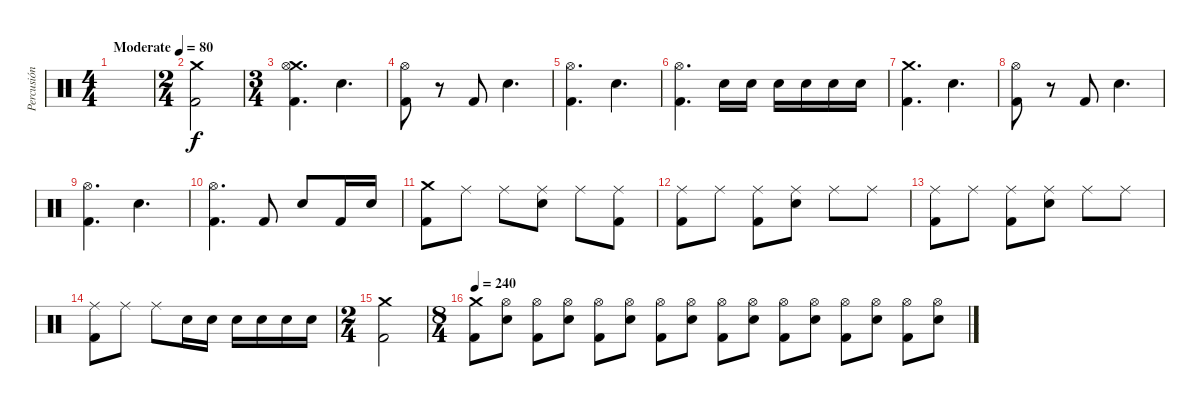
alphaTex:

\track ("Percusión" "Percusión") {instrument percussion}
\staff {score}
\articulation defaults
\ts (4 4)
\tempo (80 "Moderate")
\clef neutral
\ks c
|
\ts (2 4)
("Crash medium (hit)" "Kick (hit) 2").2 |
\ts (3 4)
("Crash medium (hit)" "Hi-Hat (open)" "Kick (hit) 2").4{d} "Electric Snare (hit)".4{d} |
("Hi-Hat (open)" "Kick (hit) 2").8 r.8 "Kick (hit) 2".8 "Electric Snare (hit)".4{d} |
("Hi-Hat (open)" "Kick (hit) 2").4{d} "Electric Snare (hit)".4{d} |
("Hi-Hat (open)" "Kick (hit) 2").4{d} "Electric Snare (hit)".16 "Electric Snare (hit)".16 "Electric Snare (hit)".16 "Electric Snare (hit)".16 "Electric Snare (hit)".16 "Electric Snare (hit)".16 |
("Crash medium (hit)" "Kick (hit) 2").4{d} "Electric Snare (hit)".4{d} |
("Hi-Hat (open)" "Kick (hit) 2").8 r.8 "Kick (hit) 2".8 "Electric Snare (hit)".4{d} |
("Hi-Hat (open)" "Kick (hit) 2").4{d} "Electric Snare (hit)".4{d} |
("Hi-Hat (open)" "Kick (hit) 2").4{d} "Kick (hit) 2".8 "Electric Snare (hit)".8 "Kick (hit) 2".16 "Electric Snare (hit)".16 |
("Crash medium (hit)" "Kick (hit) 2").8 "Ride (middle)".8 "Ride (middle)".8 ("Ride (middle)" "Electric Snare (hit)").8 "Ride (middle)".8 ("Ride (middle)" "Kick (hit) 2").8 |
("Ride (middle)" "Kick (hit) 2").8 "Ride (middle)".8 ("Ride (middle)" "Kick (hit) 2").8 ("Ride (middle)" "Electric Snare (hit)").8 "Ride (middle)".8 "Ride (middle)".8 |
("Ride (middle)" "Kick (hit) 2").8 "Ride (middle)".8 ("Ride (middle)" "Kick (hit) 2").8 ("Ride (middle)" "Electric Snare (hit)").8 "Ride (middle)".8 "Ride (middle)".8 |
("Ride (middle)" "Kick (hit) 2").8 "Ride (middle)".8 "Ride (middle)".8 "Electric Snare (hit)".16 "Electric Snare (hit)".16 "Electric Snare (hit)".16 "Electric Snare (hit)".16 "Electric Snare (hit)".16 "Electric Snare (hit)".16 |
\ts (2 4)
("Crash medium (hit)" "Kick (hit) 2").2 |
\ts (8 4)
\tempo 240
("Crash medium (hit)" "Kick (hit) 2").8 ("Hi-Hat (open)" "Electric Snare (hit)").8 ("Hi-Hat (open)" "Kick (hit) 2").8 ("Hi-Hat (open)" "Electric Snare (hit)").8 ("Hi-Hat (open)" "Kick (hit) 2").8 ("Hi-Hat (open)" "Electric Snare (hit)").8 ("Hi-Hat (open)" "Kick (hit) 2").8 ("Hi-Hat (open)" "Electric Snare (hit)").8 ("Hi-Hat (open)" "Kick (hit) 2").8 ("Hi-Hat (open)" "Electric Snare (hit)").8 ("Hi-Hat (open)" "Kick (hit) 2").8 ("Hi-Hat (open)" "Electric Snare (hit)").8 ("Hi-Hat (open)" "Kick (hit) 2").8 ("Hi-Hat (open)" "Electric Snare (hit)").8 ("Hi-Hat (open)" "Kick (hit) 2").8 ("Hi-Hat (open)" "Electric Snare (hit)").8
